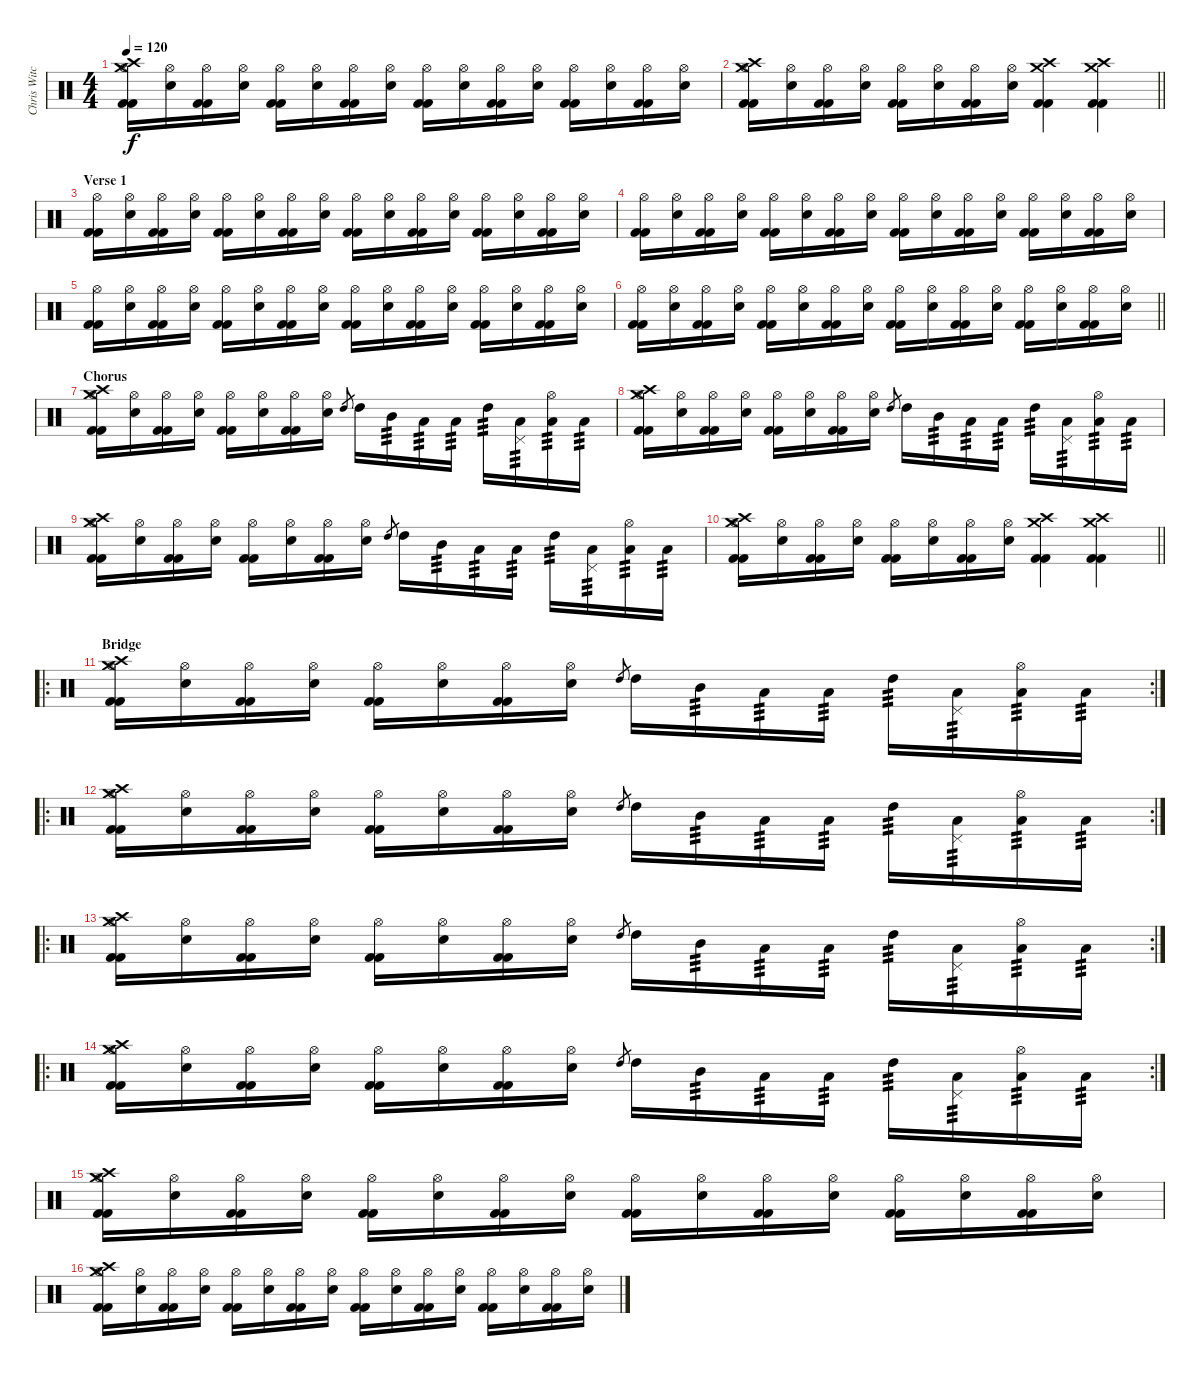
\track ("Chris Witchhunter (R.I.P.)" "Chris Witc") {instrument percussion}
\staff {score}
\articulation defaults
\ts (4 4)
\tempo 120
\clef neutral
\ks c
("Crash medium (hit)" "Crash high (hit)" "Hi-Hat (open)" "Kick (hit) 2" "Kick (hit) 2").16{dy f} ("Hi-Hat (open)" "Electric Snare (hit)").16 ("Hi-Hat (open)" "Kick (hit) 2" "Kick (hit) 2").16 ("Hi-Hat (open)" "Electric Snare (hit)").16 ("Hi-Hat (open)" "Kick (hit) 2" "Kick (hit) 2").16 ("Hi-Hat (open)" "Electric Snare (hit)").16 ("Hi-Hat (open)" "Kick (hit) 2" "Kick (hit) 2").16 ("Hi-Hat (open)" "Electric Snare (hit)").16 ("Hi-Hat (open)" "Kick (hit) 2" "Kick (hit) 2").16 ("Hi-Hat (open)" "Electric Snare (hit)").16 ("Hi-Hat (open)" "Kick (hit) 2" "Kick (hit) 2").16 ("Hi-Hat (open)" "Electric Snare (hit)").16 ("Hi-Hat (open)" "Kick (hit) 2" "Kick (hit) 2").16 ("Hi-Hat (open)" "Electric Snare (hit)").16 ("Hi-Hat (open)" "Kick (hit) 2" "Kick (hit) 2").16 ("Hi-Hat (open)" "Electric Snare (hit)").16 |
\barLineRight lightlight
("Crash medium (hit)" "Crash high (hit)" "Hi-Hat (open)" "Kick (hit) 2" "Kick (hit) 2").16 ("Hi-Hat (open)" "Electric Snare (hit)").16 ("Hi-Hat (open)" "Kick (hit) 2" "Kick (hit) 2").16 ("Hi-Hat (open)" "Electric Snare (hit)").16 ("Hi-Hat (open)" "Kick (hit) 2" "Kick (hit) 2").16 ("Hi-Hat (open)" "Electric Snare (hit)").16 ("Hi-Hat (open)" "Kick (hit) 2" "Kick (hit) 2").16 ("Hi-Hat (open)" "Electric Snare (hit)").16 ("Crash high (hit)" "Crash medium (hit)" "Kick (hit) 2" "Kick (hit) 2").4 ("Crash high (hit)" "Crash medium (hit)" "Kick (hit) 2" "Kick (hit) 2").4 |
\section ("" "Verse 1")
("Hi-Hat (open)" "Kick (hit) 2" "Kick (hit) 2").16 ("Hi-Hat (open)" "Electric Snare (hit)").16 ("Hi-Hat (open)" "Kick (hit) 2" "Kick (hit) 2").16 ("Hi-Hat (open)" "Electric Snare (hit)").16 ("Hi-Hat (open)" "Kick (hit) 2" "Kick (hit) 2").16 ("Hi-Hat (open)" "Electric Snare (hit)").16 ("Hi-Hat (open)" "Kick (hit) 2" "Kick (hit) 2").16 ("Hi-Hat (open)" "Electric Snare (hit)").16 ("Hi-Hat (open)" "Kick (hit) 2" "Kick (hit) 2").16 ("Hi-Hat (open)" "Electric Snare (hit)").16 ("Hi-Hat (open)" "Kick (hit) 2" "Kick (hit) 2").16 ("Hi-Hat (open)" "Electric Snare (hit)").16 ("Hi-Hat (open)" "Kick (hit) 2" "Kick (hit) 2").16 ("Hi-Hat (open)" "Electric Snare (hit)").16 ("Hi-Hat (open)" "Kick (hit) 2" "Kick (hit) 2").16 ("Hi-Hat (open)" "Electric Snare (hit)").16 |
("Hi-Hat (open)" "Kick (hit) 2" "Kick (hit) 2").16 ("Hi-Hat (open)" "Electric Snare (hit)").16 ("Hi-Hat (open)" "Kick (hit) 2" "Kick (hit) 2").16 ("Hi-Hat (open)" "Electric Snare (hit)").16 ("Hi-Hat (open)" "Kick (hit) 2" "Kick (hit) 2").16 ("Hi-Hat (open)" "Electric Snare (hit)").16 ("Hi-Hat (open)" "Kick (hit) 2" "Kick (hit) 2").16 ("Hi-Hat (open)" "Electric Snare (hit)").16 ("Hi-Hat (open)" "Kick (hit) 2" "Kick (hit) 2").16 ("Hi-Hat (open)" "Electric Snare (hit)").16 ("Hi-Hat (open)" "Kick (hit) 2" "Kick (hit) 2").16 ("Hi-Hat (open)" "Electric Snare (hit)").16 ("Hi-Hat (open)" "Kick (hit) 2" "Kick (hit) 2").16 ("Hi-Hat (open)" "Electric Snare (hit)").16 ("Hi-Hat (open)" "Kick (hit) 2" "Kick (hit) 2").16 ("Hi-Hat (open)" "Electric Snare (hit)").16 |
("Hi-Hat (open)" "Kick (hit) 2" "Kick (hit) 2").16 ("Hi-Hat (open)" "Electric Snare (hit)").16 ("Hi-Hat (open)" "Kick (hit) 2" "Kick (hit) 2").16 ("Hi-Hat (open)" "Electric Snare (hit)").16 ("Hi-Hat (open)" "Kick (hit) 2" "Kick (hit) 2").16 ("Hi-Hat (open)" "Electric Snare (hit)").16 ("Hi-Hat (open)" "Kick (hit) 2" "Kick (hit) 2").16 ("Hi-Hat (open)" "Electric Snare (hit)").16 ("Hi-Hat (open)" "Kick (hit) 2" "Kick (hit) 2").16 ("Hi-Hat (open)" "Electric Snare (hit)").16 ("Hi-Hat (open)" "Kick (hit) 2" "Kick (hit) 2").16 ("Hi-Hat (open)" "Electric Snare (hit)").16 ("Hi-Hat (open)" "Kick (hit) 2" "Kick (hit) 2").16 ("Hi-Hat (open)" "Electric Snare (hit)").16 ("Hi-Hat (open)" "Kick (hit) 2" "Kick (hit) 2").16 ("Hi-Hat (open)" "Electric Snare (hit)").16 |
\barLineRight lightlight
("Hi-Hat (open)" "Kick (hit) 2" "Kick (hit) 2").16 ("Hi-Hat (open)" "Electric Snare (hit)").16 ("Hi-Hat (open)" "Kick (hit) 2" "Kick (hit) 2").16 ("Hi-Hat (open)" "Electric Snare (hit)").16 ("Hi-Hat (open)" "Kick (hit) 2" "Kick (hit) 2").16 ("Hi-Hat (open)" "Electric Snare (hit)").16 ("Hi-Hat (open)" "Kick (hit) 2" "Kick (hit) 2").16 ("Hi-Hat (open)" "Electric Snare (hit)").16 ("Hi-Hat (open)" "Kick (hit) 2" "Kick (hit) 2").16 ("Hi-Hat (open)" "Electric Snare (hit)").16 ("Hi-Hat (open)" "Kick (hit) 2" "Kick (hit) 2").16 ("Hi-Hat (open)" "Electric Snare (hit)").16 ("Hi-Hat (open)" "Kick (hit) 2" "Kick (hit) 2").16 ("Hi-Hat (open)" "Electric Snare (hit)").16 ("Hi-Hat (open)" "Kick (hit) 2" "Kick (hit) 2").16 ("Hi-Hat (open)" "Electric Snare (hit)").16 |
\section ("" "Chorus")
("Crash medium (hit)" "Crash high (hit)" "Hi-Hat (open)" "Kick (hit) 2" "Kick (hit) 2").16 ("Hi-Hat (open)" "Electric Snare (hit)").16 ("Hi-Hat (open)" "Kick (hit) 2" "Kick (hit) 2").16 ("Hi-Hat (open)" "Electric Snare (hit)").16 ("Hi-Hat (open)" "Kick (hit) 2" "Kick (hit) 2").16 ("Hi-Hat (open)" "Electric Snare (hit)").16 ("Hi-Hat (open)" "Kick (hit) 2" "Kick (hit) 2").16 ("Hi-Hat (open)" "Electric Snare (hit)").16 "High Tom (hit)".8{gr} "High Tom (hit)".16 "Mid Tom (hit)".16{tp 3} "Low Tom (hit)".16{tp 3} "Low Floor Tom (hit)".16{tp 3} "High Tom (hit)".16{tp 3} ("Pedal Hi-Hat (hit)" "Low Tom (hit)").16{tp 3} ("Hi-Hat (open)" "Low Floor Tom (hit)").16{tp 3} "Low Tom (hit)".16{tp 3} |
("Crash medium (hit)" "Crash high (hit)" "Hi-Hat (open)" "Kick (hit) 2" "Kick (hit) 2").16 ("Hi-Hat (open)" "Electric Snare (hit)").16 ("Hi-Hat (open)" "Kick (hit) 2" "Kick (hit) 2").16 ("Hi-Hat (open)" "Electric Snare (hit)").16 ("Hi-Hat (open)" "Kick (hit) 2" "Kick (hit) 2").16 ("Hi-Hat (open)" "Electric Snare (hit)").16 ("Hi-Hat (open)" "Kick (hit) 2" "Kick (hit) 2").16 ("Hi-Hat (open)" "Electric Snare (hit)").16 "High Tom (hit)".8{gr} "High Tom (hit)".16 "Mid Tom (hit)".16{tp 3} "Low Tom (hit)".16{tp 3} "Low Floor Tom (hit)".16{tp 3} "High Tom (hit)".16{tp 3} ("Pedal Hi-Hat (hit)" "Low Tom (hit)").16{tp 3} ("Hi-Hat (open)" "Low Floor Tom (hit)").16{tp 3} "Low Tom (hit)".16{tp 3} |
("Crash medium (hit)" "Crash high (hit)" "Hi-Hat (open)" "Kick (hit) 2" "Kick (hit) 2").16 ("Hi-Hat (open)" "Electric Snare (hit)").16 ("Hi-Hat (open)" "Kick (hit) 2" "Kick (hit) 2").16 ("Hi-Hat (open)" "Electric Snare (hit)").16 ("Hi-Hat (open)" "Kick (hit) 2" "Kick (hit) 2").16 ("Hi-Hat (open)" "Electric Snare (hit)").16 ("Hi-Hat (open)" "Kick (hit) 2" "Kick (hit) 2").16 ("Hi-Hat (open)" "Electric Snare (hit)").16 "High Tom (hit)".8{gr} "High Tom (hit)".16 "Mid Tom (hit)".16{tp 3} "Low Tom (hit)".16{tp 3} "Low Floor Tom (hit)".16{tp 3} "High Tom (hit)".16{tp 3} ("Pedal Hi-Hat (hit)" "Low Tom (hit)").16{tp 3} ("Hi-Hat (open)" "Low Floor Tom (hit)").16{tp 3} "Low Tom (hit)".16{tp 3} |
\barLineRight lightlight
("Crash medium (hit)" "Crash high (hit)" "Hi-Hat (open)" "Kick (hit) 2" "Kick (hit) 2").16 ("Hi-Hat (open)" "Electric Snare (hit)").16 ("Hi-Hat (open)" "Kick (hit) 2" "Kick (hit) 2").16 ("Hi-Hat (open)" "Electric Snare (hit)").16 ("Hi-Hat (open)" "Kick (hit) 2" "Kick (hit) 2").16 ("Hi-Hat (open)" "Electric Snare (hit)").16 ("Hi-Hat (open)" "Kick (hit) 2" "Kick (hit) 2").16 ("Hi-Hat (open)" "Electric Snare (hit)").16 ("Crash high (hit)" "Crash medium (hit)" "Kick (hit) 2" "Kick (hit) 2").4 ("Crash high (hit)" "Crash medium (hit)" "Kick (hit) 2" "Kick (hit) 2").4 |
\ro
\rc 2
\section ("" "Bridge")
("Crash medium (hit)" "Crash high (hit)" "Hi-Hat (open)" "Kick (hit) 2" "Kick (hit) 2").16 ("Hi-Hat (open)" "Electric Snare (hit)").16 ("Hi-Hat (open)" "Kick (hit) 2" "Kick (hit) 2").16 ("Hi-Hat (open)" "Electric Snare (hit)").16 ("Hi-Hat (open)" "Kick (hit) 2" "Kick (hit) 2").16 ("Hi-Hat (open)" "Electric Snare (hit)").16 ("Hi-Hat (open)" "Kick (hit) 2" "Kick (hit) 2").16 ("Hi-Hat (open)" "Electric Snare (hit)").16 "High Tom (hit)".8{gr} "High Tom (hit)".16 "Mid Tom (hit)".16{tp 3} "Low Tom (hit)".16{tp 3} "Low Floor Tom (hit)".16{tp 3} "High Tom (hit)".16{tp 3} ("Pedal Hi-Hat (hit)" "Low Tom (hit)").16{tp 3} ("Hi-Hat (open)" "Low Floor Tom (hit)").16{tp 3} "Low Tom (hit)".16{tp 3} |
\ro
\rc 2
("Crash medium (hit)" "Crash high (hit)" "Hi-Hat (open)" "Kick (hit) 2" "Kick (hit) 2").16 ("Hi-Hat (open)" "Electric Snare (hit)").16 ("Hi-Hat (open)" "Kick (hit) 2" "Kick (hit) 2").16 ("Hi-Hat (open)" "Electric Snare (hit)").16 ("Hi-Hat (open)" "Kick (hit) 2" "Kick (hit) 2").16 ("Hi-Hat (open)" "Electric Snare (hit)").16 ("Hi-Hat (open)" "Kick (hit) 2" "Kick (hit) 2").16 ("Hi-Hat (open)" "Electric Snare (hit)").16 "High Tom (hit)".8{gr} "High Tom (hit)".16 "Mid Tom (hit)".16{tp 3} "Low Tom (hit)".16{tp 3} "Low Floor Tom (hit)".16{tp 3} "High Tom (hit)".16{tp 3} ("Pedal Hi-Hat (hit)" "Low Tom (hit)").16{tp 3} ("Hi-Hat (open)" "Low Floor Tom (hit)").16{tp 3} "Low Tom (hit)".16{tp 3} |
\ro
\rc 2
("Crash medium (hit)" "Crash high (hit)" "Hi-Hat (open)" "Kick (hit) 2" "Kick (hit) 2").16 ("Hi-Hat (open)" "Electric Snare (hit)").16 ("Hi-Hat (open)" "Kick (hit) 2" "Kick (hit) 2").16 ("Hi-Hat (open)" "Electric Snare (hit)").16 ("Hi-Hat (open)" "Kick (hit) 2" "Kick (hit) 2").16 ("Hi-Hat (open)" "Electric Snare (hit)").16 ("Hi-Hat (open)" "Kick (hit) 2" "Kick (hit) 2").16 ("Hi-Hat (open)" "Electric Snare (hit)").16 "High Tom (hit)".8{gr} "High Tom (hit)".16 "Mid Tom (hit)".16{tp 3} "Low Tom (hit)".16{tp 3} "Low Floor Tom (hit)".16{tp 3} "High Tom (hit)".16{tp 3} ("Pedal Hi-Hat (hit)" "Low Tom (hit)").16{tp 3} ("Hi-Hat (open)" "Low Floor Tom (hit)").16{tp 3} "Low Tom (hit)".16{tp 3} |
\ro
\rc 2
("Crash medium (hit)" "Crash high (hit)" "Hi-Hat (open)" "Kick (hit) 2" "Kick (hit) 2").16 ("Hi-Hat (open)" "Electric Snare (hit)").16 ("Hi-Hat (open)" "Kick (hit) 2" "Kick (hit) 2").16 ("Hi-Hat (open)" "Electric Snare (hit)").16 ("Hi-Hat (open)" "Kick (hit) 2" "Kick (hit) 2").16 ("Hi-Hat (open)" "Electric Snare (hit)").16 ("Hi-Hat (open)" "Kick (hit) 2" "Kick (hit) 2").16 ("Hi-Hat (open)" "Electric Snare (hit)").16 "High Tom (hit)".8{gr} "High Tom (hit)".16 "Mid Tom (hit)".16{tp 3} "Low Tom (hit)".16{tp 3} "Low Floor Tom (hit)".16{tp 3} "High Tom (hit)".16{tp 3} ("Pedal Hi-Hat (hit)" "Low Tom (hit)").16{tp 3} ("Hi-Hat (open)" "Low Floor Tom (hit)").16{tp 3} "Low Tom (hit)".16{tp 3} |
("Crash medium (hit)" "Crash high (hit)" "Hi-Hat (open)" "Kick (hit) 2" "Kick (hit) 2").16 ("Hi-Hat (open)" "Electric Snare (hit)").16 ("Hi-Hat (open)" "Kick (hit) 2" "Kick (hit) 2").16 ("Hi-Hat (open)" "Electric Snare (hit)").16 ("Hi-Hat (open)" "Kick (hit) 2" "Kick (hit) 2").16 ("Hi-Hat (open)" "Electric Snare (hit)").16 ("Hi-Hat (open)" "Kick (hit) 2" "Kick (hit) 2").16 ("Hi-Hat (open)" "Electric Snare (hit)").16 ("Hi-Hat (open)" "Kick (hit) 2" "Kick (hit) 2").16 ("Hi-Hat (open)" "Electric Snare (hit)").16 ("Hi-Hat (open)" "Kick (hit) 2" "Kick (hit) 2").16 ("Hi-Hat (open)" "Electric Snare (hit)").16 ("Hi-Hat (open)" "Kick (hit) 2" "Kick (hit) 2").16 ("Hi-Hat (open)" "Electric Snare (hit)").16 ("Hi-Hat (open)" "Kick (hit) 2" "Kick (hit) 2").16 ("Hi-Hat (open)" "Electric Snare (hit)").16 |
("Crash medium (hit)" "Crash high (hit)" "Hi-Hat (open)" "Kick (hit) 2" "Kick (hit) 2").16 ("Hi-Hat (open)" "Electric Snare (hit)").16 ("Hi-Hat (open)" "Kick (hit) 2" "Kick (hit) 2").16 ("Hi-Hat (open)" "Electric Snare (hit)").16 ("Hi-Hat (open)" "Kick (hit) 2" "Kick (hit) 2").16 ("Hi-Hat (open)" "Electric Snare (hit)").16 ("Hi-Hat (open)" "Kick (hit) 2" "Kick (hit) 2").16 ("Hi-Hat (open)" "Electric Snare (hit)").16 ("Hi-Hat (open)" "Kick (hit) 2" "Kick (hit) 2").16 ("Hi-Hat (open)" "Electric Snare (hit)").16 ("Hi-Hat (open)" "Kick (hit) 2" "Kick (hit) 2").16 ("Hi-Hat (open)" "Electric Snare (hit)").16 ("Hi-Hat (open)" "Kick (hit) 2" "Kick (hit) 2").16 ("Hi-Hat (open)" "Electric Snare (hit)").16 ("Hi-Hat (open)" "Kick (hit) 2" "Kick (hit) 2").16 ("Hi-Hat (open)" "Electric Snare (hit)").16
